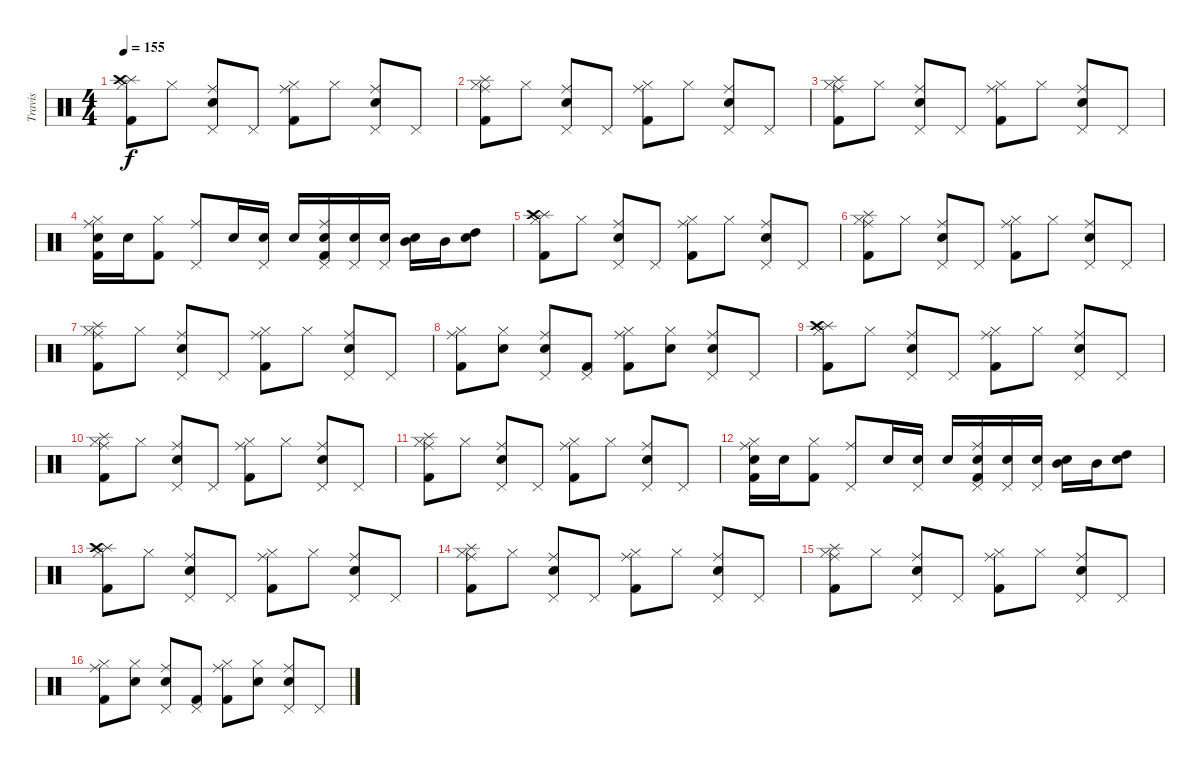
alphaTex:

\track ("Travis" "Travis") {instrument percussion}
\staff {score}
\articulation defaults
\ts (4 4)
\tempo 155
\clef neutral
\ks c
("Splash (hit)" "Hi-Hat (closed)" "Kick (hit) 2" "Crash high (hit)").8{dy f} "Hi-Hat (closed)".8 ("Electric Snare (hit)" "Pedal Hi-Hat (hit)" "Ride (middle)").8 "Pedal Hi-Hat (hit)".8 ("Hi-Hat (closed)" "Kick (hit) 2" "Ride (middle)").8 "Hi-Hat (closed)".8 ("Electric Snare (hit)" "Pedal Hi-Hat (hit)" "Ride (middle)").8 "Pedal Hi-Hat (hit)".8 |
("Splash (hit)" "Hi-Hat (closed)" "Kick (hit) 2" "Ride (middle)").8 "Hi-Hat (closed)".8 ("Electric Snare (hit)" "Pedal Hi-Hat (hit)" "Ride (middle)").8 "Pedal Hi-Hat (hit)".8 ("Hi-Hat (closed)" "Kick (hit) 2" "Ride (middle)").8 "Hi-Hat (closed)".8 ("Electric Snare (hit)" "Pedal Hi-Hat (hit)" "Ride (middle)").8 "Pedal Hi-Hat (hit)".8 |
("Splash (hit)" "Hi-Hat (closed)" "Kick (hit) 2" "Ride (middle)").8 "Hi-Hat (closed)".8 ("Electric Snare (hit)" "Pedal Hi-Hat (hit)" "Ride (middle)").8 "Pedal Hi-Hat (hit)".8 ("Hi-Hat (closed)" "Kick (hit) 2" "Ride (middle)").8 "Hi-Hat (closed)".8 ("Electric Snare (hit)" "Pedal Hi-Hat (hit)" "Ride (middle)").8 "Pedal Hi-Hat (hit)".8 |
("Electric Snare (hit)" "Hi-Hat (closed)" "Kick (hit) 2" "Ride (middle)").16 "Electric Snare (hit)".16 ("Hi-Hat (closed)" "Kick (hit) 2").8 ("Pedal Hi-Hat (hit)" "Ride (middle)").8 "Electric Snare (hit)".16 ("Electric Snare (hit)" "Pedal Hi-Hat (hit)").16 "Electric Snare (hit)".16 ("Electric Snare (hit)" "Pedal Hi-Hat (hit)" "Kick (hit) 2" "Ride (middle)").16 ("Snare (hit) 2" "Pedal Hi-Hat (hit)").16 ("Snare (hit) 2" "Pedal Hi-Hat (hit)").16 ("Electric Snare (hit)" "Mid Tom (hit)").16 "Mid Tom (hit)".16 ("Electric Snare (hit)" "High Tom (hit)").8 |
("Splash (hit)" "Hi-Hat (closed)" "Kick (hit) 2" "Crash high (hit)").8 "Hi-Hat (closed)".8 ("Electric Snare (hit)" "Pedal Hi-Hat (hit)" "Ride (middle)").8 "Pedal Hi-Hat (hit)".8 ("Hi-Hat (closed)" "Kick (hit) 2" "Ride (middle)").8 "Hi-Hat (closed)".8 ("Electric Snare (hit)" "Pedal Hi-Hat (hit)" "Ride (middle)").8 "Pedal Hi-Hat (hit)".8 |
("Splash (hit)" "Hi-Hat (closed)" "Kick (hit) 2" "Ride (middle)").8 "Hi-Hat (closed)".8 ("Electric Snare (hit)" "Pedal Hi-Hat (hit)" "Ride (middle)").8 "Pedal Hi-Hat (hit)".8 ("Hi-Hat (closed)" "Kick (hit) 2" "Ride (middle)").8 "Hi-Hat (closed)".8 ("Electric Snare (hit)" "Pedal Hi-Hat (hit)" "Ride (middle)").8 "Pedal Hi-Hat (hit)".8 |
("Splash (hit)" "Hi-Hat (closed)" "Kick (hit) 2" "Ride (middle)").8 "Hi-Hat (closed)".8 ("Electric Snare (hit)" "Pedal Hi-Hat (hit)" "Ride (middle)").8 "Pedal Hi-Hat (hit)".8 ("Hi-Hat (closed)" "Kick (hit) 2" "Ride (middle)").8 "Hi-Hat (closed)".8 ("Electric Snare (hit)" "Pedal Hi-Hat (hit)" "Ride (middle)").8 "Pedal Hi-Hat (hit)".8 |
("Hi-Hat (closed)" "Kick (hit) 2" "Ride (middle)").8 ("Electric Snare (hit)" "Hi-Hat (closed)").8 ("Electric Snare (hit)" "Pedal Hi-Hat (hit)" "Ride (middle)").8 ("Pedal Hi-Hat (hit)" "Kick (hit) 2").8 ("Hi-Hat (closed)" "Kick (hit) 2" "Ride (middle)").8 ("Electric Snare (hit)" "Hi-Hat (closed)").8 ("Electric Snare (hit)" "Pedal Hi-Hat (hit)" "Ride (middle)").8 "Pedal Hi-Hat (hit)".8 |
("Splash (hit)" "Hi-Hat (closed)" "Kick (hit) 2" "Crash high (hit)").8 "Hi-Hat (closed)".8 ("Electric Snare (hit)" "Pedal Hi-Hat (hit)" "Ride (middle)").8 "Pedal Hi-Hat (hit)".8 ("Hi-Hat (closed)" "Kick (hit) 2" "Ride (middle)").8 "Hi-Hat (closed)".8 ("Electric Snare (hit)" "Pedal Hi-Hat (hit)" "Ride (middle)").8 "Pedal Hi-Hat (hit)".8 |
("Splash (hit)" "Hi-Hat (closed)" "Kick (hit) 2" "Ride (middle)").8 "Hi-Hat (closed)".8 ("Electric Snare (hit)" "Pedal Hi-Hat (hit)" "Ride (middle)").8 "Pedal Hi-Hat (hit)".8 ("Hi-Hat (closed)" "Kick (hit) 2" "Ride (middle)").8 "Hi-Hat (closed)".8 ("Electric Snare (hit)" "Pedal Hi-Hat (hit)" "Ride (middle)").8 "Pedal Hi-Hat (hit)".8 |
("Splash (hit)" "Hi-Hat (closed)" "Kick (hit) 2" "Ride (middle)").8 "Hi-Hat (closed)".8 ("Electric Snare (hit)" "Pedal Hi-Hat (hit)" "Ride (middle)").8 "Pedal Hi-Hat (hit)".8 ("Hi-Hat (closed)" "Kick (hit) 2" "Ride (middle)").8 "Hi-Hat (closed)".8 ("Electric Snare (hit)" "Pedal Hi-Hat (hit)" "Ride (middle)").8 "Pedal Hi-Hat (hit)".8 |
("Electric Snare (hit)" "Hi-Hat (closed)" "Kick (hit) 2" "Ride (middle)").16 "Electric Snare (hit)".16 ("Hi-Hat (closed)" "Kick (hit) 2").8 ("Pedal Hi-Hat (hit)" "Ride (middle)").8 "Electric Snare (hit)".16 ("Electric Snare (hit)" "Pedal Hi-Hat (hit)").16 "Electric Snare (hit)".16 ("Electric Snare (hit)" "Pedal Hi-Hat (hit)" "Kick (hit) 2" "Ride (middle)").16 ("Snare (hit) 2" "Pedal Hi-Hat (hit)").16 ("Snare (hit) 2" "Pedal Hi-Hat (hit)").16 ("Electric Snare (hit)" "Mid Tom (hit)").16 "Mid Tom (hit)".16 ("Electric Snare (hit)" "High Tom (hit)").8 |
("Splash (hit)" "Hi-Hat (closed)" "Kick (hit) 2" "Crash high (hit)").8 "Hi-Hat (closed)".8 ("Electric Snare (hit)" "Pedal Hi-Hat (hit)" "Ride (middle)").8 "Pedal Hi-Hat (hit)".8 ("Hi-Hat (closed)" "Kick (hit) 2" "Ride (middle)").8 "Hi-Hat (closed)".8 ("Electric Snare (hit)" "Pedal Hi-Hat (hit)" "Ride (middle)").8 "Pedal Hi-Hat (hit)".8 |
("Splash (hit)" "Hi-Hat (closed)" "Kick (hit) 2" "Ride (middle)").8 "Hi-Hat (closed)".8 ("Electric Snare (hit)" "Pedal Hi-Hat (hit)" "Ride (middle)").8 "Pedal Hi-Hat (hit)".8 ("Hi-Hat (closed)" "Kick (hit) 2" "Ride (middle)").8 "Hi-Hat (closed)".8 ("Electric Snare (hit)" "Pedal Hi-Hat (hit)" "Ride (middle)").8 "Pedal Hi-Hat (hit)".8 |
("Splash (hit)" "Hi-Hat (closed)" "Kick (hit) 2" "Ride (middle)").8 "Hi-Hat (closed)".8 ("Electric Snare (hit)" "Pedal Hi-Hat (hit)" "Ride (middle)").8 "Pedal Hi-Hat (hit)".8 ("Hi-Hat (closed)" "Kick (hit) 2" "Ride (middle)").8 "Hi-Hat (closed)".8 ("Electric Snare (hit)" "Pedal Hi-Hat (hit)" "Ride (middle)").8 "Pedal Hi-Hat (hit)".8 |
("Hi-Hat (closed)" "Kick (hit) 2" "Ride (middle)").8 ("Electric Snare (hit)" "Hi-Hat (closed)").8 ("Electric Snare (hit)" "Pedal Hi-Hat (hit)" "Ride (middle)").8 ("Pedal Hi-Hat (hit)" "Kick (hit) 2").8 ("Hi-Hat (closed)" "Kick (hit) 2" "Ride (middle)").8 ("Electric Snare (hit)" "Hi-Hat (closed)").8 ("Electric Snare (hit)" "Pedal Hi-Hat (hit)" "Ride (middle)").8 "Pedal Hi-Hat (hit)".8
